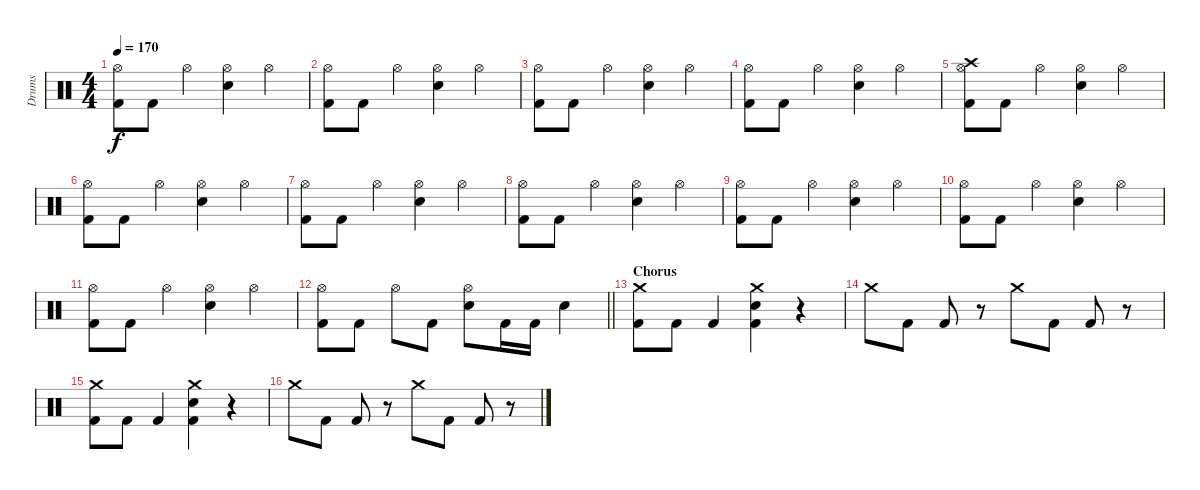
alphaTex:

\track ("Drums" "Drums") {instrument percussion}
\staff {score}
\articulation defaults
\ts (4 4)
\tempo 170
\clef neutral
\ks c
("Hi-Hat (open)" "Kick (hit) 2").8{dy f} "Kick (hit) 2".8 "Hi-Hat (open)".4 ("Hi-Hat (open)" "Electric Snare (hit)").4 "Hi-Hat (open)".4 |
("Hi-Hat (open)" "Kick (hit) 2").8 "Kick (hit) 2".8 "Hi-Hat (open)".4 ("Hi-Hat (open)" "Electric Snare (hit)").4 "Hi-Hat (open)".4 |
("Hi-Hat (open)" "Kick (hit) 2").8 "Kick (hit) 2".8 "Hi-Hat (open)".4 ("Hi-Hat (open)" "Electric Snare (hit)").4 "Hi-Hat (open)".4 |
("Hi-Hat (open)" "Kick (hit) 2").8 "Kick (hit) 2".8 "Hi-Hat (open)".4 ("Hi-Hat (open)" "Electric Snare (hit)").4 "Hi-Hat (open)".4 |
("Hi-Hat (open)" "Crash high (hit)" "Kick (hit) 2").8 "Kick (hit) 2".8 "Hi-Hat (open)".4 ("Hi-Hat (open)" "Electric Snare (hit)").4 "Hi-Hat (open)".4 |
("Hi-Hat (open)" "Kick (hit) 2").8 "Kick (hit) 2".8 "Hi-Hat (open)".4 ("Hi-Hat (open)" "Electric Snare (hit)").4 "Hi-Hat (open)".4 |
("Hi-Hat (open)" "Kick (hit) 2").8 "Kick (hit) 2".8 "Hi-Hat (open)".4 ("Hi-Hat (open)" "Electric Snare (hit)").4 "Hi-Hat (open)".4 |
("Hi-Hat (open)" "Kick (hit) 2").8 "Kick (hit) 2".8 "Hi-Hat (open)".4 ("Hi-Hat (open)" "Electric Snare (hit)").4 "Hi-Hat (open)".4 |
("Hi-Hat (open)" "Kick (hit) 2").8 "Kick (hit) 2".8 "Hi-Hat (open)".4 ("Hi-Hat (open)" "Electric Snare (hit)").4 "Hi-Hat (open)".4 |
("Hi-Hat (open)" "Kick (hit) 2").8 "Kick (hit) 2".8 "Hi-Hat (open)".4 ("Hi-Hat (open)" "Electric Snare (hit)").4 "Hi-Hat (open)".4 |
("Hi-Hat (open)" "Kick (hit) 2").8 "Kick (hit) 2".8 "Hi-Hat (open)".4 ("Hi-Hat (open)" "Electric Snare (hit)").4 "Hi-Hat (open)".4 |
\barLineRight lightlight
("Hi-Hat (open)" "Kick (hit) 2").8 "Kick (hit) 2".8 "Hi-Hat (open)".8 "Kick (hit) 2".8 ("Hi-Hat (open)" "Electric Snare (hit)").8 "Kick (hit) 2".16 "Kick (hit) 2".16 "Electric Snare (hit)".4 |
\section ("" "Chorus")
("Crash medium (hit)" "Kick (hit) 2").8 "Kick (hit) 2".8 "Kick (hit) 2".4 ("Crash medium (hit)" "Electric Snare (hit)" "Kick (hit) 2").4 r.4 |
"Crash medium (hit)".8 "Kick (hit) 2".8 "Kick (hit) 2".8 r.8 "Crash medium (hit)".8 "Kick (hit) 2".8 "Kick (hit) 2".8 r.8 |
("Crash medium (hit)" "Kick (hit) 2").8 "Kick (hit) 2".8 "Kick (hit) 2".4 ("Crash medium (hit)" "Electric Snare (hit)" "Kick (hit) 2").4 r.4 |
"Crash medium (hit)".8 "Kick (hit) 2".8 "Kick (hit) 2".8 r.8 "Crash medium (hit)".8 "Kick (hit) 2".8 "Kick (hit) 2".8 r.8
